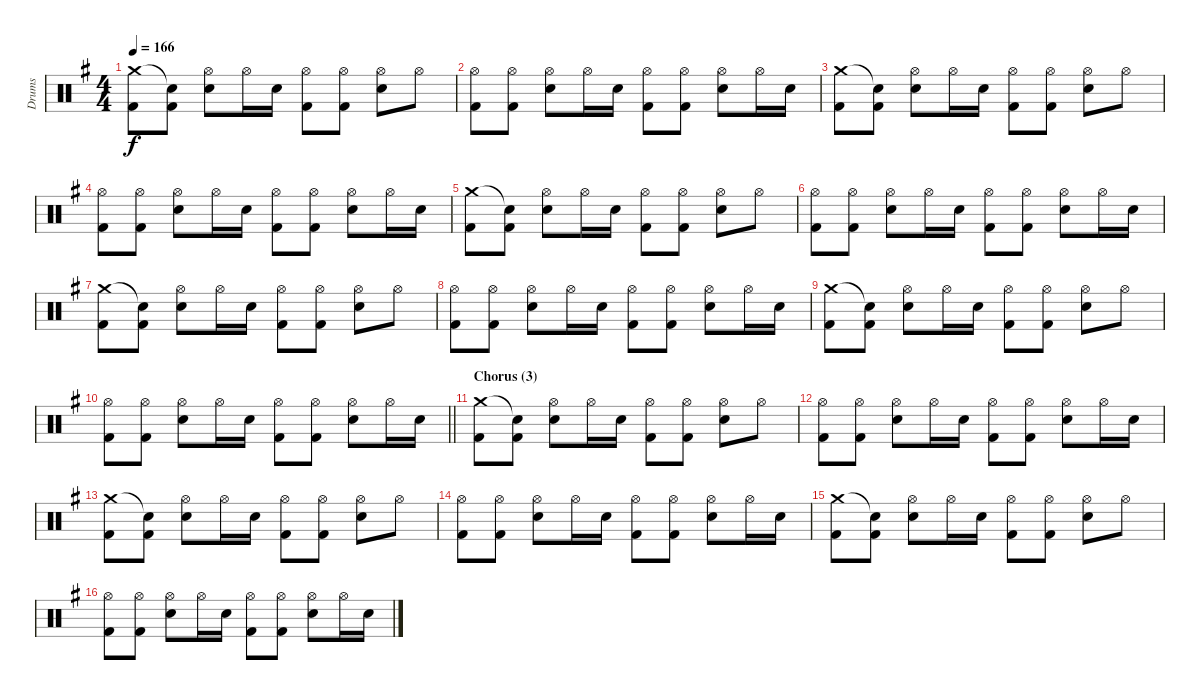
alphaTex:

\track ("Drums" "Drums") {instrument percussion}
\staff {score}
\articulation defaults
\ts (4 4)
\tempo 166
\clef neutral
\ks g
("Crash medium (hit)" "Kick (hit) 2").8{dy f} ("Snare (hit)"{t} "Kick (hit) 2").8 ("Hi-Hat (open)" "Electric Snare (hit)").8 "Hi-Hat (open)".16 "Electric Snare (hit)".16 ("Hi-Hat (open)" "Kick (hit) 2").8 ("Hi-Hat (open)" "Kick (hit) 2").8 ("Hi-Hat (open)" "Electric Snare (hit)").8 "Hi-Hat (open)".8 |
("Hi-Hat (open)" "Kick (hit) 2").8 ("Hi-Hat (open)" "Kick (hit) 2").8 ("Hi-Hat (open)" "Electric Snare (hit)").8 "Hi-Hat (open)".16 "Electric Snare (hit)".16 ("Hi-Hat (open)" "Kick (hit) 2").8 ("Hi-Hat (open)" "Kick (hit) 2").8 ("Hi-Hat (open)" "Electric Snare (hit)").8 "Hi-Hat (open)".16 "Electric Snare (hit)".16 |
("Crash medium (hit)" "Kick (hit) 2").8 ("Snare (hit)"{t} "Kick (hit) 2").8 ("Hi-Hat (open)" "Electric Snare (hit)").8 "Hi-Hat (open)".16 "Electric Snare (hit)".16 ("Hi-Hat (open)" "Kick (hit) 2").8 ("Hi-Hat (open)" "Kick (hit) 2").8 ("Hi-Hat (open)" "Electric Snare (hit)").8 "Hi-Hat (open)".8 |
("Hi-Hat (open)" "Kick (hit) 2").8 ("Hi-Hat (open)" "Kick (hit) 2").8 ("Hi-Hat (open)" "Electric Snare (hit)").8 "Hi-Hat (open)".16 "Electric Snare (hit)".16 ("Hi-Hat (open)" "Kick (hit) 2").8 ("Hi-Hat (open)" "Kick (hit) 2").8 ("Hi-Hat (open)" "Electric Snare (hit)").8 "Hi-Hat (open)".16 "Electric Snare (hit)".16 |
("Crash medium (hit)" "Kick (hit) 2").8 ("Snare (hit)"{t} "Kick (hit) 2").8 ("Hi-Hat (open)" "Electric Snare (hit)").8 "Hi-Hat (open)".16 "Electric Snare (hit)".16 ("Hi-Hat (open)" "Kick (hit) 2").8 ("Hi-Hat (open)" "Kick (hit) 2").8 ("Hi-Hat (open)" "Electric Snare (hit)").8 "Hi-Hat (open)".8 |
("Hi-Hat (open)" "Kick (hit) 2").8 ("Hi-Hat (open)" "Kick (hit) 2").8 ("Hi-Hat (open)" "Electric Snare (hit)").8 "Hi-Hat (open)".16 "Electric Snare (hit)".16 ("Hi-Hat (open)" "Kick (hit) 2").8 ("Hi-Hat (open)" "Kick (hit) 2").8 ("Hi-Hat (open)" "Electric Snare (hit)").8 "Hi-Hat (open)".16 "Electric Snare (hit)".16 |
("Crash medium (hit)" "Kick (hit) 2").8 ("Snare (hit)"{t} "Kick (hit) 2").8 ("Hi-Hat (open)" "Electric Snare (hit)").8 "Hi-Hat (open)".16 "Electric Snare (hit)".16 ("Hi-Hat (open)" "Kick (hit) 2").8 ("Hi-Hat (open)" "Kick (hit) 2").8 ("Hi-Hat (open)" "Electric Snare (hit)").8 "Hi-Hat (open)".8 |
("Hi-Hat (open)" "Kick (hit) 2").8 ("Hi-Hat (open)" "Kick (hit) 2").8 ("Hi-Hat (open)" "Electric Snare (hit)").8 "Hi-Hat (open)".16 "Electric Snare (hit)".16 ("Hi-Hat (open)" "Kick (hit) 2").8 ("Hi-Hat (open)" "Kick (hit) 2").8 ("Hi-Hat (open)" "Electric Snare (hit)").8 "Hi-Hat (open)".16 "Electric Snare (hit)".16 |
("Crash medium (hit)" "Kick (hit) 2").8 ("Snare (hit)"{t} "Kick (hit) 2").8 ("Hi-Hat (open)" "Electric Snare (hit)").8 "Hi-Hat (open)".16 "Electric Snare (hit)".16 ("Hi-Hat (open)" "Kick (hit) 2").8 ("Hi-Hat (open)" "Kick (hit) 2").8 ("Hi-Hat (open)" "Electric Snare (hit)").8 "Hi-Hat (open)".8 |
\barLineRight lightlight
("Hi-Hat (open)" "Kick (hit) 2").8 ("Hi-Hat (open)" "Kick (hit) 2").8 ("Hi-Hat (open)" "Electric Snare (hit)").8 "Hi-Hat (open)".16 "Electric Snare (hit)".16 ("Hi-Hat (open)" "Kick (hit) 2").8 ("Hi-Hat (open)" "Kick (hit) 2").8 ("Hi-Hat (open)" "Electric Snare (hit)").8 "Hi-Hat (open)".16 "Electric Snare (hit)".16 |
\section ("" "Chorus (3)")
("Crash medium (hit)" "Kick (hit) 2").8 ("Snare (hit)"{t} "Kick (hit) 2").8 ("Hi-Hat (open)" "Electric Snare (hit)").8 "Hi-Hat (open)".16 "Electric Snare (hit)".16 ("Hi-Hat (open)" "Kick (hit) 2").8 ("Hi-Hat (open)" "Kick (hit) 2").8 ("Hi-Hat (open)" "Electric Snare (hit)").8 "Hi-Hat (open)".8 |
("Hi-Hat (open)" "Kick (hit) 2").8 ("Hi-Hat (open)" "Kick (hit) 2").8 ("Hi-Hat (open)" "Electric Snare (hit)").8 "Hi-Hat (open)".16 "Electric Snare (hit)".16 ("Hi-Hat (open)" "Kick (hit) 2").8 ("Hi-Hat (open)" "Kick (hit) 2").8 ("Hi-Hat (open)" "Electric Snare (hit)").8 "Hi-Hat (open)".16 "Electric Snare (hit)".16 |
("Crash medium (hit)" "Kick (hit) 2").8 ("Snare (hit)"{t} "Kick (hit) 2").8 ("Hi-Hat (open)" "Electric Snare (hit)").8 "Hi-Hat (open)".16 "Electric Snare (hit)".16 ("Hi-Hat (open)" "Kick (hit) 2").8 ("Hi-Hat (open)" "Kick (hit) 2").8 ("Hi-Hat (open)" "Electric Snare (hit)").8 "Hi-Hat (open)".8 |
("Hi-Hat (open)" "Kick (hit) 2").8 ("Hi-Hat (open)" "Kick (hit) 2").8 ("Hi-Hat (open)" "Electric Snare (hit)").8 "Hi-Hat (open)".16 "Electric Snare (hit)".16 ("Hi-Hat (open)" "Kick (hit) 2").8 ("Hi-Hat (open)" "Kick (hit) 2").8 ("Hi-Hat (open)" "Electric Snare (hit)").8 "Hi-Hat (open)".16 "Electric Snare (hit)".16 |
("Crash medium (hit)" "Kick (hit) 2").8 ("Snare (hit)"{t} "Kick (hit) 2").8 ("Hi-Hat (open)" "Electric Snare (hit)").8 "Hi-Hat (open)".16 "Electric Snare (hit)".16 ("Hi-Hat (open)" "Kick (hit) 2").8 ("Hi-Hat (open)" "Kick (hit) 2").8 ("Hi-Hat (open)" "Electric Snare (hit)").8 "Hi-Hat (open)".8 |
("Hi-Hat (open)" "Kick (hit) 2").8 ("Hi-Hat (open)" "Kick (hit) 2").8 ("Hi-Hat (open)" "Electric Snare (hit)").8 "Hi-Hat (open)".16 "Electric Snare (hit)".16 ("Hi-Hat (open)" "Kick (hit) 2").8 ("Hi-Hat (open)" "Kick (hit) 2").8 ("Hi-Hat (open)" "Electric Snare (hit)").8 "Hi-Hat (open)".16 "Electric Snare (hit)".16
